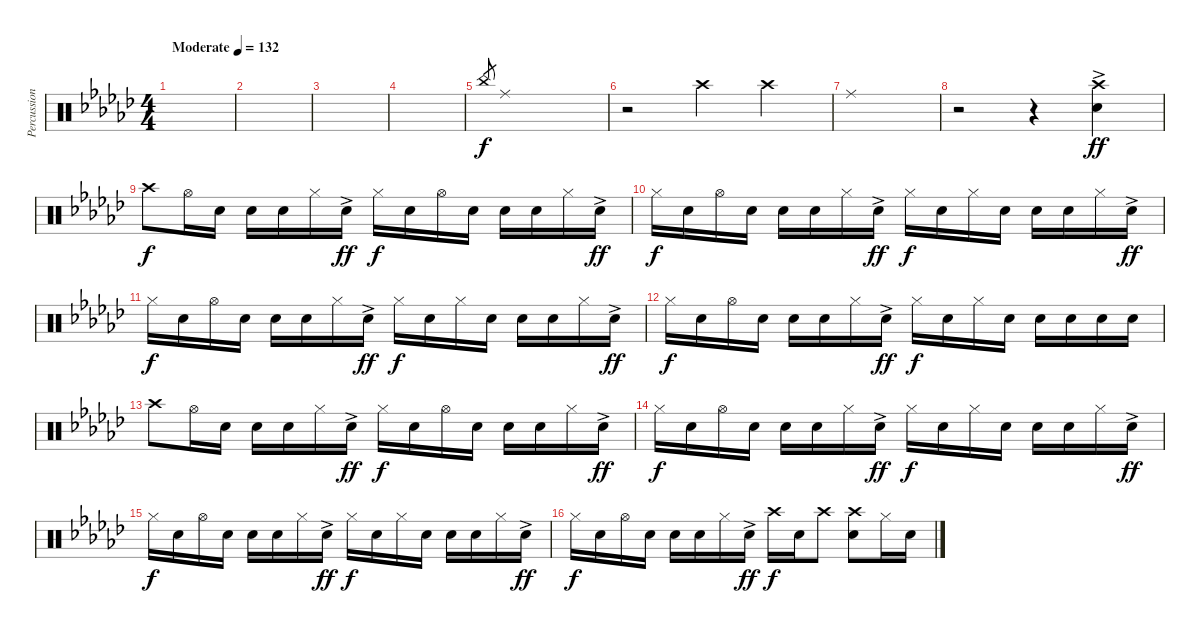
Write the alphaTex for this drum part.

\track ("Percussion hand" "Percussion") {instrument percussion}
\staff {score}
\articulation defaults
\ts (4 4)
\tempo (132 "Moderate")
\clef neutral
\ks gb
|
|
|
|
"China (hit)".8{gr} "Ride (middle)".1 |
r.2 "Crash high (hit)".4 "Crash high (hit)".4 |
"Ride (middle)".1 |
r.2 r.4 ("Crash high (hit)" "Snare (hit) 2"{ac}).4{dy ff} |
"Crash high (hit)".8{dy f} "Hi-Hat (open)".16 "Snare (hit) 2".16 "Snare (hit) 2".16 "Snare (hit) 2".16 "Hi-Hat (closed)".16 "Snare (hit) 2"{ac}.16{dy ff} "Hi-Hat (closed)".16{dy f} "Snare (hit) 2".16 "Hi-Hat (open)".16 "Snare (hit) 2".16 "Snare (hit) 2".16 "Snare (hit) 2".16 "Hi-Hat (closed)".16 "Snare (hit) 2"{ac}.16{dy ff} |
"Hi-Hat (closed)".16{dy f} "Snare (hit) 2".16 "Hi-Hat (open)".16 "Snare (hit) 2".16 "Snare (hit) 2".16 "Snare (hit) 2".16 "Hi-Hat (closed)".16 "Snare (hit) 2"{ac}.16{dy ff} "Hi-Hat (closed)".16{dy f} "Snare (hit) 2".16 "Hi-Hat (closed)".16 "Snare (hit) 2".16 "Snare (hit) 2".16 "Snare (hit) 2".16 "Hi-Hat (closed)".16 "Snare (hit) 2"{ac}.16{dy ff} |
"Hi-Hat (closed)".16{dy f} "Snare (hit) 2".16 "Hi-Hat (open)".16 "Snare (hit) 2".16 "Snare (hit) 2".16 "Snare (hit) 2".16 "Hi-Hat (closed)".16 "Snare (hit) 2"{ac}.16{dy ff} "Hi-Hat (closed)".16{dy f} "Snare (hit) 2".16 "Hi-Hat (closed)".16 "Snare (hit) 2".16 "Snare (hit) 2".16 "Snare (hit) 2".16 "Hi-Hat (closed)".16 "Snare (hit) 2"{ac}.16{dy ff} |
"Hi-Hat (closed)".16{dy f} "Snare (hit) 2".16 "Hi-Hat (open)".16 "Snare (hit) 2".16 "Snare (hit) 2".16 "Snare (hit) 2".16 "Hi-Hat (closed)".16 "Snare (hit) 2"{ac}.16{dy ff} "Hi-Hat (closed)".16{dy f} "Snare (hit) 2".16 "Hi-Hat (closed)".16 "Snare (hit) 2".16 "Snare (hit) 2".16 "Snare (hit) 2".16 "Snare (hit) 2".16 "Snare (hit) 2".16 |
"Crash high (hit)".8 "Hi-Hat (open)".16 "Snare (hit) 2".16 "Snare (hit) 2".16 "Snare (hit) 2".16 "Hi-Hat (closed)".16 "Snare (hit) 2"{ac}.16{dy ff} "Hi-Hat (closed)".16{dy f} "Snare (hit) 2".16 "Hi-Hat (open)".16 "Snare (hit) 2".16 "Snare (hit) 2".16 "Snare (hit) 2".16 "Hi-Hat (closed)".16 "Snare (hit) 2"{ac}.16{dy ff} |
"Hi-Hat (closed)".16{dy f} "Snare (hit) 2".16 "Hi-Hat (open)".16 "Snare (hit) 2".16 "Snare (hit) 2".16 "Snare (hit) 2".16 "Hi-Hat (closed)".16 "Snare (hit) 2"{ac}.16{dy ff} "Hi-Hat (closed)".16{dy f} "Snare (hit) 2".16 "Hi-Hat (closed)".16 "Snare (hit) 2".16 "Snare (hit) 2".16 "Snare (hit) 2".16 "Hi-Hat (closed)".16 "Snare (hit) 2"{ac}.16{dy ff} |
"Hi-Hat (closed)".16{dy f} "Snare (hit) 2".16 "Hi-Hat (open)".16 "Snare (hit) 2".16 "Snare (hit) 2".16 "Snare (hit) 2".16 "Hi-Hat (closed)".16 "Snare (hit) 2"{ac}.16{dy ff} "Hi-Hat (closed)".16{dy f} "Snare (hit) 2".16 "Hi-Hat (closed)".16 "Snare (hit) 2".16 "Snare (hit) 2".16 "Snare (hit) 2".16 "Hi-Hat (closed)".16 "Snare (hit) 2"{ac}.16{dy ff} |
"Hi-Hat (closed)".16{dy f} "Snare (hit) 2".16 "Hi-Hat (open)".16 "Snare (hit) 2".16 "Snare (hit) 2".16 "Snare (hit) 2".16 "Hi-Hat (closed)".16 "Snare (hit) 2"{ac}.16{dy ff} "Crash high (hit)".16{dy f} "Snare (hit) 2".16 "Crash high (hit)".8 ("Crash high (hit)" "Snare (hit) 2").8 "Hi-Hat (closed)".16 "Snare (hit) 2".16
